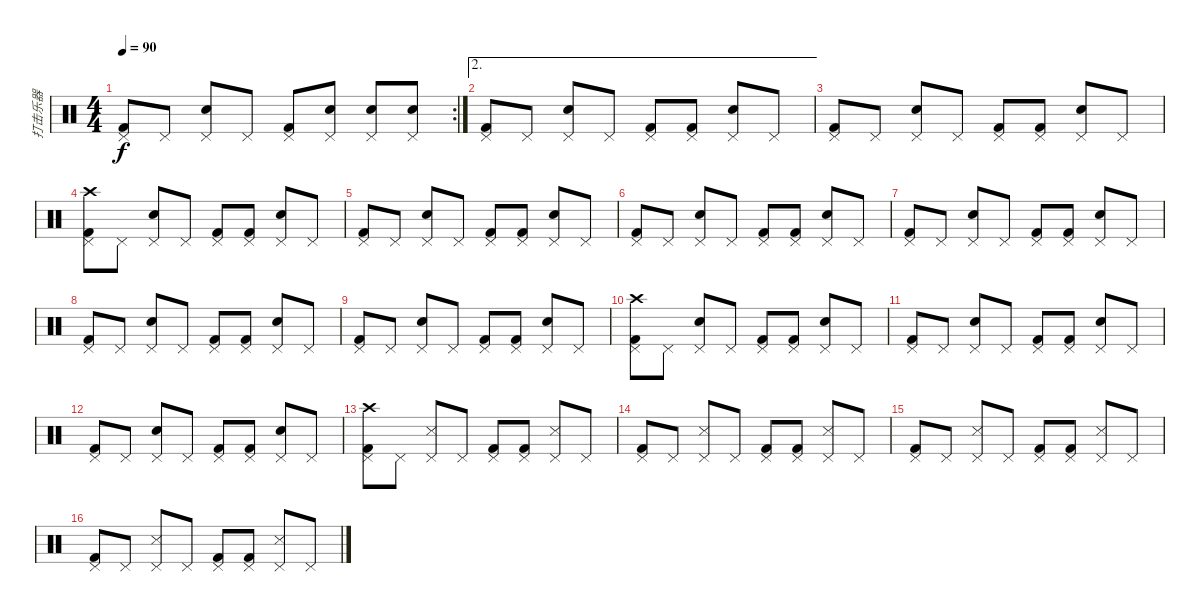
\track ("打击乐器" "打击乐器") {instrument percussion}
\staff {score}
\articulation defaults
\rc 2
\ts (4 4)
\tempo 90
\clef neutral
\ks c
("Kick (hit) 2" "Pedal Hi-Hat (hit)").8{dy f} "Pedal Hi-Hat (hit)".8 ("Snare (hit) 2" "Pedal Hi-Hat (hit)").8 "Pedal Hi-Hat (hit)".8 ("Kick (hit) 2" "Pedal Hi-Hat (hit)").8 ("Snare (hit) 2" "Pedal Hi-Hat (hit)").8 ("Snare (hit) 2" "Pedal Hi-Hat (hit)").8 ("Snare (hit) 2" "Pedal Hi-Hat (hit)").8 |
\ae 2
("Kick (hit) 2" "Pedal Hi-Hat (hit)").8 "Pedal Hi-Hat (hit)".8 ("Snare (hit) 2" "Pedal Hi-Hat (hit)").8 "Pedal Hi-Hat (hit)".8 ("Kick (hit) 2" "Pedal Hi-Hat (hit)").8 ("Kick (hit) 2" "Pedal Hi-Hat (hit)").8 ("Snare (hit) 2" "Pedal Hi-Hat (hit)").8 "Pedal Hi-Hat (hit)".8 |
("Kick (hit) 2" "Pedal Hi-Hat (hit)").8 "Pedal Hi-Hat (hit)".8 ("Snare (hit) 2" "Pedal Hi-Hat (hit)").8 "Pedal Hi-Hat (hit)".8 ("Kick (hit) 2" "Pedal Hi-Hat (hit)").8 ("Kick (hit) 2" "Pedal Hi-Hat (hit)").8 ("Snare (hit) 2" "Pedal Hi-Hat (hit)").8 "Pedal Hi-Hat (hit)".8 |
("Crash high (hit)" "Kick (hit) 2" "Pedal Hi-Hat (hit)").8 "Pedal Hi-Hat (hit)".8 ("Snare (hit) 2" "Pedal Hi-Hat (hit)").8 "Pedal Hi-Hat (hit)".8 ("Kick (hit) 2" "Pedal Hi-Hat (hit)").8 ("Kick (hit) 2" "Pedal Hi-Hat (hit)").8 ("Snare (hit) 2" "Pedal Hi-Hat (hit)").8 "Pedal Hi-Hat (hit)".8 |
("Kick (hit) 2" "Pedal Hi-Hat (hit)").8 "Pedal Hi-Hat (hit)".8 ("Snare (hit) 2" "Pedal Hi-Hat (hit)").8 "Pedal Hi-Hat (hit)".8 ("Kick (hit) 2" "Pedal Hi-Hat (hit)").8 ("Kick (hit) 2" "Pedal Hi-Hat (hit)").8 ("Snare (hit) 2" "Pedal Hi-Hat (hit)").8 "Pedal Hi-Hat (hit)".8 |
("Kick (hit) 2" "Pedal Hi-Hat (hit)").8 "Pedal Hi-Hat (hit)".8 ("Snare (hit) 2" "Pedal Hi-Hat (hit)").8 "Pedal Hi-Hat (hit)".8 ("Kick (hit) 2" "Pedal Hi-Hat (hit)").8 ("Kick (hit) 2" "Pedal Hi-Hat (hit)").8 ("Snare (hit) 2" "Pedal Hi-Hat (hit)").8 "Pedal Hi-Hat (hit)".8 |
("Kick (hit) 2" "Pedal Hi-Hat (hit)").8 "Pedal Hi-Hat (hit)".8 ("Snare (hit) 2" "Pedal Hi-Hat (hit)").8 "Pedal Hi-Hat (hit)".8 ("Kick (hit) 2" "Pedal Hi-Hat (hit)").8 ("Kick (hit) 2" "Pedal Hi-Hat (hit)").8 ("Snare (hit) 2" "Pedal Hi-Hat (hit)").8 "Pedal Hi-Hat (hit)".8 |
("Kick (hit) 2" "Pedal Hi-Hat (hit)").8 "Pedal Hi-Hat (hit)".8 ("Snare (hit) 2" "Pedal Hi-Hat (hit)").8 "Pedal Hi-Hat (hit)".8 ("Kick (hit) 2" "Pedal Hi-Hat (hit)").8 ("Kick (hit) 2" "Pedal Hi-Hat (hit)").8 ("Snare (hit) 2" "Pedal Hi-Hat (hit)").8 "Pedal Hi-Hat (hit)".8 |
("Kick (hit) 2" "Pedal Hi-Hat (hit)").8 "Pedal Hi-Hat (hit)".8 ("Snare (hit) 2" "Pedal Hi-Hat (hit)").8 "Pedal Hi-Hat (hit)".8 ("Kick (hit) 2" "Pedal Hi-Hat (hit)").8 ("Kick (hit) 2" "Pedal Hi-Hat (hit)").8 ("Snare (hit) 2" "Pedal Hi-Hat (hit)").8 "Pedal Hi-Hat (hit)".8 |
("Crash high (hit)" "Kick (hit) 2" "Pedal Hi-Hat (hit)").8 "Pedal Hi-Hat (hit)".8 ("Snare (hit) 2" "Pedal Hi-Hat (hit)").8 "Pedal Hi-Hat (hit)".8 ("Kick (hit) 2" "Pedal Hi-Hat (hit)").8 ("Kick (hit) 2" "Pedal Hi-Hat (hit)").8 ("Snare (hit) 2" "Pedal Hi-Hat (hit)").8 "Pedal Hi-Hat (hit)".8 |
("Kick (hit) 2" "Pedal Hi-Hat (hit)").8 "Pedal Hi-Hat (hit)".8 ("Snare (hit) 2" "Pedal Hi-Hat (hit)").8 "Pedal Hi-Hat (hit)".8 ("Kick (hit) 2" "Pedal Hi-Hat (hit)").8 ("Kick (hit) 2" "Pedal Hi-Hat (hit)").8 ("Snare (hit) 2" "Pedal Hi-Hat (hit)").8 "Pedal Hi-Hat (hit)".8 |
("Kick (hit) 2" "Pedal Hi-Hat (hit)").8 "Pedal Hi-Hat (hit)".8 ("Snare (hit) 2" "Pedal Hi-Hat (hit)").8 "Pedal Hi-Hat (hit)".8 ("Kick (hit) 2" "Pedal Hi-Hat (hit)").8 ("Kick (hit) 2" "Pedal Hi-Hat (hit)").8 ("Snare (hit) 2" "Pedal Hi-Hat (hit)").8 "Pedal Hi-Hat (hit)".8 |
("Crash high (hit)" "Kick (hit) 2" "Pedal Hi-Hat (hit)").8 "Pedal Hi-Hat (hit)".8 ("Snare (side stick) 3" "Pedal Hi-Hat (hit)").8 "Pedal Hi-Hat (hit)".8 ("Kick (hit) 2" "Pedal Hi-Hat (hit)").8 ("Kick (hit) 2" "Pedal Hi-Hat (hit)").8 ("Snare (side stick) 3" "Pedal Hi-Hat (hit)").8 "Pedal Hi-Hat (hit)".8 |
("Kick (hit) 2" "Pedal Hi-Hat (hit)").8 "Pedal Hi-Hat (hit)".8 ("Snare (side stick) 3" "Pedal Hi-Hat (hit)").8 "Pedal Hi-Hat (hit)".8 ("Kick (hit) 2" "Pedal Hi-Hat (hit)").8 ("Kick (hit) 2" "Pedal Hi-Hat (hit)").8 ("Snare (side stick) 3" "Pedal Hi-Hat (hit)").8 "Pedal Hi-Hat (hit)".8 |
("Kick (hit) 2" "Pedal Hi-Hat (hit)").8 "Pedal Hi-Hat (hit)".8 ("Snare (side stick) 3" "Pedal Hi-Hat (hit)").8 "Pedal Hi-Hat (hit)".8 ("Kick (hit) 2" "Pedal Hi-Hat (hit)").8 ("Kick (hit) 2" "Pedal Hi-Hat (hit)").8 ("Snare (side stick) 3" "Pedal Hi-Hat (hit)").8 "Pedal Hi-Hat (hit)".8 |
("Kick (hit) 2" "Pedal Hi-Hat (hit)").8 "Pedal Hi-Hat (hit)".8 ("Snare (side stick) 3" "Pedal Hi-Hat (hit)").8 "Pedal Hi-Hat (hit)".8 ("Kick (hit) 2" "Pedal Hi-Hat (hit)").8 ("Kick (hit) 2" "Pedal Hi-Hat (hit)").8 ("Snare (side stick) 3" "Pedal Hi-Hat (hit)").8 "Pedal Hi-Hat (hit)".8
